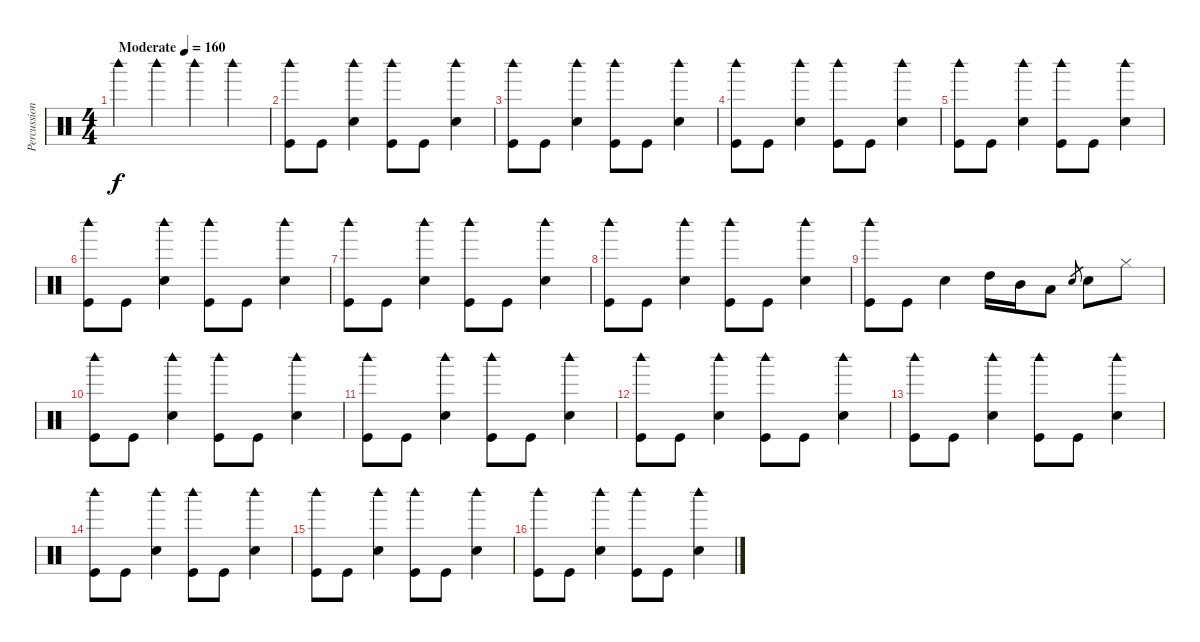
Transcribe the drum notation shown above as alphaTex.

\track ("Percussion" "Percussion") {instrument percussion}
\staff {score}
\articulation defaults
\ts (4 4)
\tempo (160 "Moderate")
\clef neutral
\ks c "Woodblock high (hit)".4{dy f} "Woodblock high (hit)".4 "Woodblock high (hit)".4 "Woodblock high (hit)".4
|
("Woodblock high (hit)" "Kick (hit)").8 "Kick (hit)".8 ("Woodblock high (hit)" "Snare (hit) 2").4 ("Woodblock high (hit)" "Kick (hit)").8 "Kick (hit)".8 ("Woodblock high (hit)" "Snare (hit) 2").4 |
("Woodblock high (hit)" "Kick (hit)").8 "Kick (hit)".8 ("Woodblock high (hit)" "Snare (hit) 2").4 ("Woodblock high (hit)" "Kick (hit)").8 "Kick (hit)".8 ("Woodblock high (hit)" "Snare (hit) 2").4 |
("Woodblock high (hit)" "Kick (hit)").8 "Kick (hit)".8 ("Woodblock high (hit)" "Snare (hit) 2").4 ("Woodblock high (hit)" "Kick (hit)").8 "Kick (hit)".8 ("Woodblock high (hit)" "Snare (hit) 2").4 |
("Woodblock high (hit)" "Kick (hit)").8 "Kick (hit)".8 ("Woodblock high (hit)" "Snare (hit) 2").4 ("Woodblock high (hit)" "Kick (hit)").8 "Kick (hit)".8 ("Woodblock high (hit)" "Snare (hit) 2").4 |
("Woodblock high (hit)" "Kick (hit)").8 "Kick (hit)".8 ("Woodblock high (hit)" "Snare (hit) 2").4 ("Woodblock high (hit)" "Kick (hit)").8 "Kick (hit)".8 ("Woodblock high (hit)" "Snare (hit) 2").4 |
("Woodblock high (hit)" "Kick (hit)").8 "Kick (hit)".8 ("Woodblock high (hit)" "Snare (hit) 2").4 ("Woodblock high (hit)" "Kick (hit)").8 "Kick (hit)".8 ("Woodblock high (hit)" "Snare (hit) 2").4 |
("Woodblock high (hit)" "Kick (hit)").8 "Kick (hit)".8 ("Woodblock high (hit)" "Snare (hit) 2").4 ("Woodblock high (hit)" "Kick (hit)").8 "Kick (hit)".8 ("Woodblock high (hit)" "Snare (hit) 2").4 |
("Woodblock high (hit)" "Kick (hit)").8 "Kick (hit)".8 "Snare (hit) 2".4 "High Tom (hit)".16 "Mid Tom (hit)".16 "Low Tom (hit)".8 "Electric Snare (hit)".8{gr} "Snare (hit) 2".8 "Hi-Hat (closed)".8 |
("Woodblock high (hit)" "Kick (hit)").8 "Kick (hit)".8 ("Woodblock high (hit)" "Snare (hit) 2").4 ("Woodblock high (hit)" "Kick (hit)").8 "Kick (hit)".8 ("Woodblock high (hit)" "Snare (hit) 2").4 |
("Woodblock high (hit)" "Kick (hit)").8 "Kick (hit)".8 ("Woodblock high (hit)" "Snare (hit) 2").4 ("Woodblock high (hit)" "Kick (hit)").8 "Kick (hit)".8 ("Woodblock high (hit)" "Snare (hit) 2").4 |
("Woodblock high (hit)" "Kick (hit)").8 "Kick (hit)".8 ("Woodblock high (hit)" "Snare (hit) 2").4 ("Woodblock high (hit)" "Kick (hit)").8 "Kick (hit)".8 ("Woodblock high (hit)" "Snare (hit) 2").4 |
("Woodblock high (hit)" "Kick (hit)").8 "Kick (hit)".8 ("Woodblock high (hit)" "Snare (hit) 2").4 ("Woodblock high (hit)" "Kick (hit)").8 "Kick (hit)".8 ("Woodblock high (hit)" "Snare (hit) 2").4 |
("Woodblock high (hit)" "Kick (hit)").8 "Kick (hit)".8 ("Woodblock high (hit)" "Snare (hit) 2").4 ("Woodblock high (hit)" "Kick (hit)").8 "Kick (hit)".8 ("Woodblock high (hit)" "Snare (hit) 2").4 |
("Woodblock high (hit)" "Kick (hit)").8 "Kick (hit)".8 ("Woodblock high (hit)" "Snare (hit) 2").4 ("Woodblock high (hit)" "Kick (hit)").8 "Kick (hit)".8 ("Woodblock high (hit)" "Snare (hit) 2").4 |
("Woodblock high (hit)" "Kick (hit)").8 "Kick (hit)".8 ("Woodblock high (hit)" "Snare (hit) 2").4 ("Woodblock high (hit)" "Kick (hit)").8 "Kick (hit)".8 ("Woodblock high (hit)" "Snare (hit) 2").4
